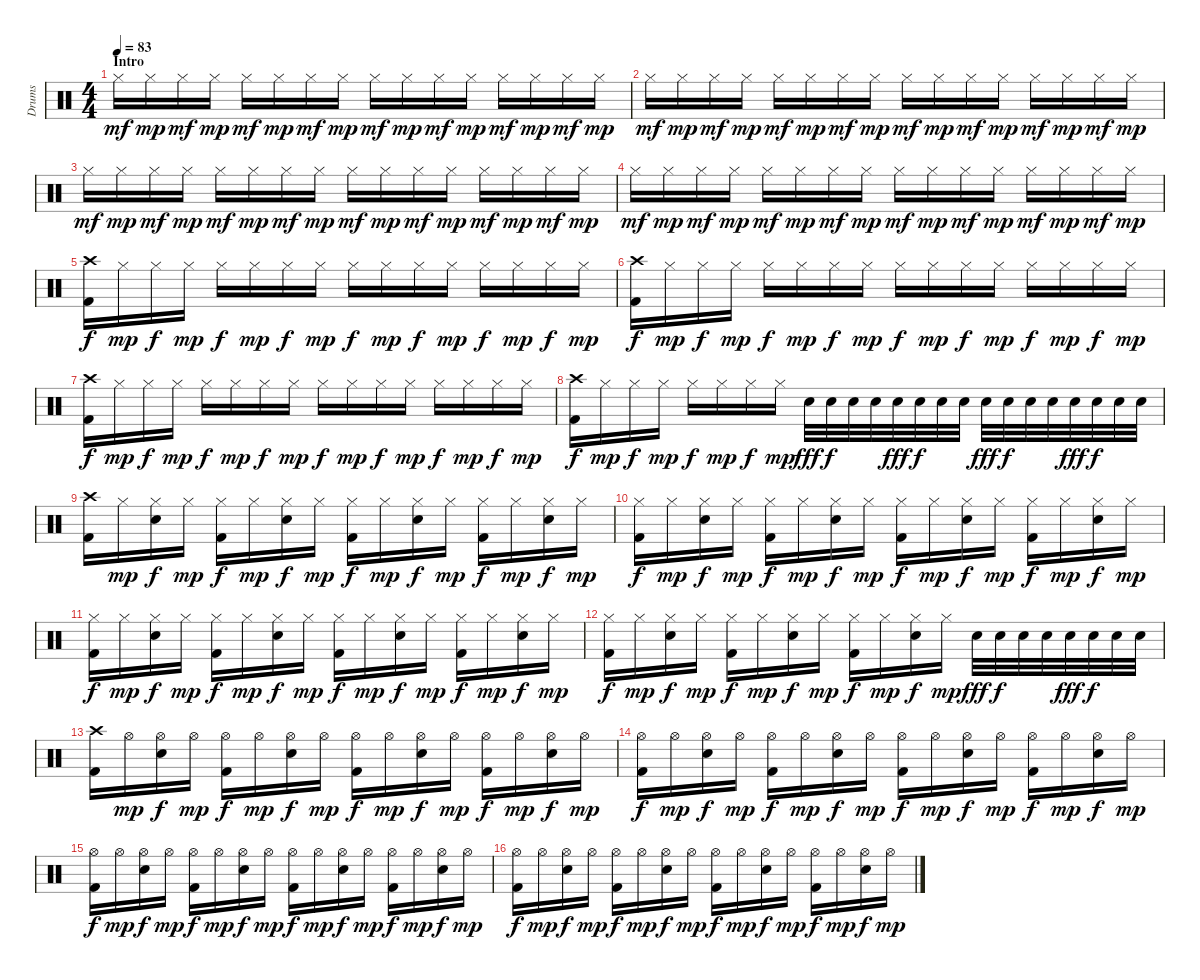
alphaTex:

\track ("Drums" "Drums") {instrument percussion}
\staff {score}
\articulation defaults
\ts (4 4)
\section ("" "Intro")
\tempo 83
\clef neutral
\ks c "Hi-Hat (closed)".16{dy mf} "Hi-Hat (closed)".16{dy mp} "Hi-Hat (closed)".16{dy mf} "Hi-Hat (closed)".16{dy mp} "Hi-Hat (closed)".16{dy mf} "Hi-Hat (closed)".16{dy mp} "Hi-Hat (closed)".16{dy mf} "Hi-Hat (closed)".16{dy mp} "Hi-Hat (closed)".16{dy mf} "Hi-Hat (closed)".16{dy mp} "Hi-Hat (closed)".16{dy mf} "Hi-Hat (closed)".16{dy mp} "Hi-Hat (closed)".16{dy mf} "Hi-Hat (closed)".16{dy mp} "Hi-Hat (closed)".16{dy mf} "Hi-Hat (closed)".16{dy mp}
|
"Hi-Hat (closed)".16{dy mf} "Hi-Hat (closed)".16{dy mp} "Hi-Hat (closed)".16{dy mf} "Hi-Hat (closed)".16{dy mp} "Hi-Hat (closed)".16{dy mf} "Hi-Hat (closed)".16{dy mp} "Hi-Hat (closed)".16{dy mf} "Hi-Hat (closed)".16{dy mp} "Hi-Hat (closed)".16{dy mf} "Hi-Hat (closed)".16{dy mp} "Hi-Hat (closed)".16{dy mf} "Hi-Hat (closed)".16{dy mp} "Hi-Hat (closed)".16{dy mf} "Hi-Hat (closed)".16{dy mp} "Hi-Hat (closed)".16{dy mf} "Hi-Hat (closed)".16{dy mp} |
"Hi-Hat (closed)".16{dy mf} "Hi-Hat (closed)".16{dy mp} "Hi-Hat (closed)".16{dy mf} "Hi-Hat (closed)".16{dy mp} "Hi-Hat (closed)".16{dy mf} "Hi-Hat (closed)".16{dy mp} "Hi-Hat (closed)".16{dy mf} "Hi-Hat (closed)".16{dy mp} "Hi-Hat (closed)".16{dy mf} "Hi-Hat (closed)".16{dy mp} "Hi-Hat (closed)".16{dy mf} "Hi-Hat (closed)".16{dy mp} "Hi-Hat (closed)".16{dy mf} "Hi-Hat (closed)".16{dy mp} "Hi-Hat (closed)".16{dy mf} "Hi-Hat (closed)".16{dy mp} |
"Hi-Hat (closed)".16{dy mf} "Hi-Hat (closed)".16{dy mp} "Hi-Hat (closed)".16{dy mf} "Hi-Hat (closed)".16{dy mp} "Hi-Hat (closed)".16{dy mf} "Hi-Hat (closed)".16{dy mp} "Hi-Hat (closed)".16{dy mf} "Hi-Hat (closed)".16{dy mp} "Hi-Hat (closed)".16{dy mf} "Hi-Hat (closed)".16{dy mp} "Hi-Hat (closed)".16{dy mf} "Hi-Hat (closed)".16{dy mp} "Hi-Hat (closed)".16{dy mf} "Hi-Hat (closed)".16{dy mp} "Hi-Hat (closed)".16{dy mf} "Hi-Hat (closed)".16{dy mp} |
("Crash high (hit)" "Kick (hit) 2").16{dy f} "Hi-Hat (closed)".16{dy mp} "Hi-Hat (closed)".16{dy f} "Hi-Hat (closed)".16{dy mp} "Hi-Hat (closed)".16{dy f} "Hi-Hat (closed)".16{dy mp} "Hi-Hat (closed)".16{dy f} "Hi-Hat (closed)".16{dy mp} "Hi-Hat (closed)".16{dy f} "Hi-Hat (closed)".16{dy mp} "Hi-Hat (closed)".16{dy f} "Hi-Hat (closed)".16{dy mp} "Hi-Hat (closed)".16{dy f} "Hi-Hat (closed)".16{dy mp} "Hi-Hat (closed)".16{dy f} "Hi-Hat (closed)".16{dy mp} |
("Crash high (hit)" "Kick (hit) 2").16{dy f} "Hi-Hat (closed)".16{dy mp} "Hi-Hat (closed)".16{dy f} "Hi-Hat (closed)".16{dy mp} "Hi-Hat (closed)".16{dy f} "Hi-Hat (closed)".16{dy mp} "Hi-Hat (closed)".16{dy f} "Hi-Hat (closed)".16{dy mp} "Hi-Hat (closed)".16{dy f} "Hi-Hat (closed)".16{dy mp} "Hi-Hat (closed)".16{dy f} "Hi-Hat (closed)".16{dy mp} "Hi-Hat (closed)".16{dy f} "Hi-Hat (closed)".16{dy mp} "Hi-Hat (closed)".16{dy f} "Hi-Hat (closed)".16{dy mp} |
("Crash high (hit)" "Kick (hit) 2").16{dy f} "Hi-Hat (closed)".16{dy mp} "Hi-Hat (closed)".16{dy f} "Hi-Hat (closed)".16{dy mp} "Hi-Hat (closed)".16{dy f} "Hi-Hat (closed)".16{dy mp} "Hi-Hat (closed)".16{dy f} "Hi-Hat (closed)".16{dy mp} "Hi-Hat (closed)".16{dy f} "Hi-Hat (closed)".16{dy mp} "Hi-Hat (closed)".16{dy f} "Hi-Hat (closed)".16{dy mp} "Hi-Hat (closed)".16{dy f} "Hi-Hat (closed)".16{dy mp} "Hi-Hat (closed)".16{dy f} "Hi-Hat (closed)".16{dy mp} |
("Crash high (hit)" "Kick (hit) 2").16{dy f} "Hi-Hat (closed)".16{dy mp} "Hi-Hat (closed)".16{dy f} "Hi-Hat (closed)".16{dy mp} "Hi-Hat (closed)".16{dy f} "Hi-Hat (closed)".16{dy mp} "Hi-Hat (closed)".16{dy f} "Hi-Hat (closed)".16{dy mp} "Snare (hit) 2".32{dy fff} "Snare (hit) 2".32{dy f} "Snare (hit) 2".32 "Snare (hit) 2".32 "Snare (hit) 2".32{dy fff} "Snare (hit) 2".32{dy f} "Snare (hit) 2".32 "Snare (hit) 2".32 "Snare (hit) 2".32{dy fff} "Snare (hit) 2".32{dy f} "Snare (hit) 2".32 "Snare (hit) 2".32 "Snare (hit) 2".32{dy fff} "Snare (hit) 2".32{dy f} "Snare (hit) 2".32 "Snare (hit) 2".32 |
("Crash high (hit)" "Kick (hit) 2").16 "Hi-Hat (closed)".16{dy mp} ("Hi-Hat (closed)" "Snare (hit) 2").16{dy f} "Hi-Hat (closed)".16{dy mp} ("Hi-Hat (closed)" "Kick (hit) 2").16{dy f} "Hi-Hat (closed)".16{dy mp} ("Hi-Hat (closed)" "Snare (hit) 2").16{dy f} "Hi-Hat (closed)".16{dy mp} ("Hi-Hat (closed)" "Kick (hit) 2").16{dy f} "Hi-Hat (closed)".16{dy mp} ("Hi-Hat (closed)" "Snare (hit) 2").16{dy f} "Hi-Hat (closed)".16{dy mp} ("Hi-Hat (closed)" "Kick (hit) 2").16{dy f} "Hi-Hat (closed)".16{dy mp} ("Hi-Hat (closed)" "Snare (hit) 2").16{dy f} "Hi-Hat (closed)".16{dy mp} |
("Hi-Hat (closed)" "Kick (hit) 2").16{dy f} "Hi-Hat (closed)".16{dy mp} ("Hi-Hat (closed)" "Snare (hit) 2").16{dy f} "Hi-Hat (closed)".16{dy mp} ("Hi-Hat (closed)" "Kick (hit) 2").16{dy f} "Hi-Hat (closed)".16{dy mp} ("Hi-Hat (closed)" "Snare (hit) 2").16{dy f} "Hi-Hat (closed)".16{dy mp} ("Hi-Hat (closed)" "Kick (hit) 2").16{dy f} "Hi-Hat (closed)".16{dy mp} ("Hi-Hat (closed)" "Snare (hit) 2").16{dy f} "Hi-Hat (closed)".16{dy mp} ("Hi-Hat (closed)" "Kick (hit) 2").16{dy f} "Hi-Hat (closed)".16{dy mp} ("Hi-Hat (closed)" "Snare (hit) 2").16{dy f} "Hi-Hat (closed)".16{dy mp} |
("Hi-Hat (closed)" "Kick (hit) 2").16{dy f} "Hi-Hat (closed)".16{dy mp} ("Hi-Hat (closed)" "Snare (hit) 2").16{dy f} "Hi-Hat (closed)".16{dy mp} ("Hi-Hat (closed)" "Kick (hit) 2").16{dy f} "Hi-Hat (closed)".16{dy mp} ("Hi-Hat (closed)" "Snare (hit) 2").16{dy f} "Hi-Hat (closed)".16{dy mp} ("Hi-Hat (closed)" "Kick (hit) 2").16{dy f} "Hi-Hat (closed)".16{dy mp} ("Hi-Hat (closed)" "Snare (hit) 2").16{dy f} "Hi-Hat (closed)".16{dy mp} ("Hi-Hat (closed)" "Kick (hit) 2").16{dy f} "Hi-Hat (closed)".16{dy mp} ("Hi-Hat (closed)" "Snare (hit) 2").16{dy f} "Hi-Hat (closed)".16{dy mp} |
("Hi-Hat (closed)" "Kick (hit) 2").16{dy f} "Hi-Hat (closed)".16{dy mp} ("Hi-Hat (closed)" "Snare (hit) 2").16{dy f} "Hi-Hat (closed)".16{dy mp} ("Hi-Hat (closed)" "Kick (hit) 2").16{dy f} "Hi-Hat (closed)".16{dy mp} ("Hi-Hat (closed)" "Snare (hit) 2").16{dy f} "Hi-Hat (closed)".16{dy mp} ("Hi-Hat (closed)" "Kick (hit) 2").16{dy f} "Hi-Hat (closed)".16{dy mp} ("Hi-Hat (closed)" "Snare (hit) 2").16{dy f} "Hi-Hat (closed)".16{dy mp} "Snare (hit) 2".32{dy fff} "Snare (hit) 2".32{dy f} "Snare (hit) 2".32 "Snare (hit) 2".32 "Snare (hit) 2".32{dy fff} "Snare (hit) 2".32{dy f} "Snare (hit) 2".32 "Snare (hit) 2".32 |
("Crash high (hit)" "Kick (hit) 2").16 "Hi-Hat (open)".16{dy mp} ("Hi-Hat (open)" "Snare (hit) 2").16{dy f} "Hi-Hat (open)".16{dy mp} ("Hi-Hat (open)" "Kick (hit) 2").16{dy f} "Hi-Hat (open)".16{dy mp} ("Hi-Hat (open)" "Snare (hit) 2").16{dy f} "Hi-Hat (open)".16{dy mp} ("Hi-Hat (open)" "Kick (hit) 2").16{dy f} "Hi-Hat (open)".16{dy mp} ("Hi-Hat (open)" "Snare (hit) 2").16{dy f} "Hi-Hat (open)".16{dy mp} ("Hi-Hat (open)" "Kick (hit) 2").16{dy f} "Hi-Hat (open)".16{dy mp} ("Hi-Hat (open)" "Snare (hit) 2").16{dy f} "Hi-Hat (open)".16{dy mp} |
("Hi-Hat (open)" "Kick (hit) 2").16{dy f} "Hi-Hat (open)".16{dy mp} ("Hi-Hat (open)" "Snare (hit) 2").16{dy f} "Hi-Hat (open)".16{dy mp} ("Hi-Hat (open)" "Kick (hit) 2").16{dy f} "Hi-Hat (open)".16{dy mp} ("Hi-Hat (open)" "Snare (hit) 2").16{dy f} "Hi-Hat (open)".16{dy mp} ("Hi-Hat (open)" "Kick (hit) 2").16{dy f} "Hi-Hat (open)".16{dy mp} ("Hi-Hat (open)" "Snare (hit) 2").16{dy f} "Hi-Hat (open)".16{dy mp} ("Hi-Hat (open)" "Kick (hit) 2").16{dy f} "Hi-Hat (open)".16{dy mp} ("Hi-Hat (open)" "Snare (hit) 2").16{dy f} "Hi-Hat (open)".16{dy mp} |
("Hi-Hat (open)" "Kick (hit) 2").16{dy f} "Hi-Hat (open)".16{dy mp} ("Hi-Hat (open)" "Snare (hit) 2").16{dy f} "Hi-Hat (open)".16{dy mp} ("Hi-Hat (open)" "Kick (hit) 2").16{dy f} "Hi-Hat (open)".16{dy mp} ("Hi-Hat (open)" "Snare (hit) 2").16{dy f} "Hi-Hat (open)".16{dy mp} ("Hi-Hat (open)" "Kick (hit) 2").16{dy f} "Hi-Hat (open)".16{dy mp} ("Hi-Hat (open)" "Snare (hit) 2").16{dy f} "Hi-Hat (open)".16{dy mp} ("Hi-Hat (open)" "Kick (hit) 2").16{dy f} "Hi-Hat (open)".16{dy mp} ("Hi-Hat (open)" "Snare (hit) 2").16{dy f} "Hi-Hat (open)".16{dy mp} |
("Hi-Hat (open)" "Kick (hit) 2").16{dy f} "Hi-Hat (open)".16{dy mp} ("Hi-Hat (open)" "Snare (hit) 2").16{dy f} "Hi-Hat (open)".16{dy mp} ("Hi-Hat (open)" "Kick (hit) 2").16{dy f} "Hi-Hat (open)".16{dy mp} ("Hi-Hat (open)" "Snare (hit) 2").16{dy f} "Hi-Hat (open)".16{dy mp} ("Hi-Hat (open)" "Kick (hit) 2").16{dy f} "Hi-Hat (open)".16{dy mp} ("Hi-Hat (open)" "Snare (hit) 2").16{dy f} "Hi-Hat (open)".16{dy mp} ("Hi-Hat (open)" "Kick (hit) 2").16{dy f} "Hi-Hat (open)".16{dy mp} ("Hi-Hat (open)" "Snare (hit) 2").16{dy f} "Hi-Hat (open)".16{dy mp}
